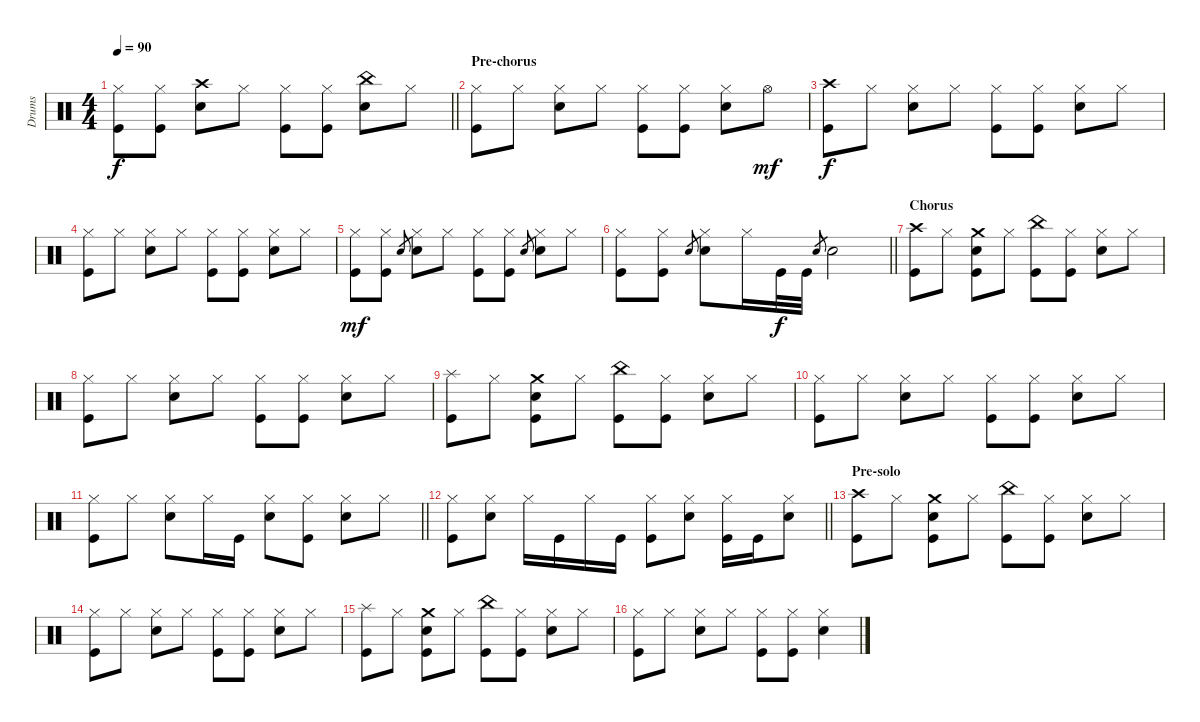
\track ("Drums" "Drums") {instrument percussion}
\staff {score}
\articulation defaults
\ts (4 4)
\tempo 90
\clef neutral
\barLineRight lightlight
\ks c
("Kick (hit)" "Hi-Hat (closed)").8{dy f} ("Kick (hit)" "Hi-Hat (closed)").8 ("Snare (hit) 2" "Crash high (hit)").8 "Hi-Hat (closed)".8 ("Kick (hit)" "Hi-Hat (closed)").8 ("Kick (hit)" "Hi-Hat (closed)").8 ("Snare (hit) 2" "China (hit)").8 "Hi-Hat (closed)".8 |
\section ("" "Pre-chorus")
("Kick (hit)" "Hi-Hat (closed)").8 "Hi-Hat (closed)".8 ("Snare (hit) 2" "Hi-Hat (closed)").8 "Hi-Hat (closed)".8 ("Kick (hit)" "Hi-Hat (closed)").8 ("Kick (hit)" "Hi-Hat (closed)").8 ("Snare (hit) 2" "Hi-Hat (closed)").8 "Hi-Hat (open)".8{dy mf} |
("Kick (hit)" "Crash high (hit)").8{dy f} "Hi-Hat (closed)".8 ("Snare (hit) 2" "Hi-Hat (closed)").8 "Hi-Hat (closed)".8 ("Kick (hit)" "Hi-Hat (closed)").8 ("Kick (hit)" "Hi-Hat (closed)").8 ("Snare (hit) 2" "Hi-Hat (closed)").8 "Hi-Hat (closed)".8 |
("Kick (hit)" "Hi-Hat (closed)").8 "Hi-Hat (closed)".8 ("Snare (hit) 2" "Hi-Hat (closed)").8 "Hi-Hat (closed)".8 ("Kick (hit)" "Hi-Hat (closed)").8 ("Kick (hit)" "Hi-Hat (closed)").8 ("Snare (hit) 2" "Hi-Hat (closed)").8 "Hi-Hat (closed)".8 |
("Kick (hit)" "Hi-Hat (closed)").8{dy mf} ("Kick (hit)" "Hi-Hat (closed)").8 "Snare (hit) 2".8{gr} ("Snare (hit) 2" "Hi-Hat (closed)").8 "Hi-Hat (closed)".8 ("Kick (hit)" "Hi-Hat (closed)").8 ("Kick (hit)" "Hi-Hat (closed)").8 "Snare (hit) 2".8{gr} ("Snare (hit) 2" "Hi-Hat (closed)").8 "Hi-Hat (closed)".8 |
\barLineRight lightlight
("Kick (hit)" "Hi-Hat (closed)").8 ("Kick (hit)" "Hi-Hat (closed)").8 "Snare (hit) 2".8{gr} ("Snare (hit) 2" "Hi-Hat (closed)").8 "Hi-Hat (closed)".16 "Kick (hit)".32{dy f} "Kick (hit)".32 "Snare (hit) 2".8{gr} "Snare (hit) 2".2 |
\section ("" "Chorus")
("Crash high (hit)" "Kick (hit)").8 "Hi-Hat (closed)".8 ("Kick (hit)" "Snare (hit) 2" "Crash medium (hit)").8 "Hi-Hat (closed)".8 ("Kick (hit)" "China (hit)").8 ("Kick (hit)" "Hi-Hat (closed)").8 ("Snare (hit) 2" "Hi-Hat (closed)").8 "Hi-Hat (closed)".8 |
("Kick (hit)" "Hi-Hat (closed)").8 "Hi-Hat (closed)".8 ("Snare (hit) 2" "Hi-Hat (closed)").8 "Hi-Hat (closed)".8 ("Kick (hit)" "Hi-Hat (closed)").8 ("Kick (hit)" "Hi-Hat (closed)").8 ("Snare (hit) 2" "Hi-Hat (closed)").8 "Hi-Hat (closed)".8 |
("Splash (hit)" "Kick (hit)").8 "Hi-Hat (closed)".8 ("Kick (hit)" "Snare (hit) 2" "Crash medium (hit)").8 "Hi-Hat (closed)".8 ("Kick (hit)" "China (hit)").8 ("Kick (hit)" "Hi-Hat (closed)").8 ("Snare (hit) 2" "Hi-Hat (closed)").8 "Hi-Hat (closed)".8 |
("Kick (hit)" "Hi-Hat (closed)").8 "Hi-Hat (closed)".8 ("Snare (hit) 2" "Hi-Hat (closed)").8 "Hi-Hat (closed)".8 ("Kick (hit)" "Hi-Hat (closed)").8 ("Kick (hit)" "Hi-Hat (closed)").8 ("Snare (hit) 2" "Hi-Hat (closed)").8 "Hi-Hat (closed)".8 |
\barLineRight lightlight
("Kick (hit)" "Hi-Hat (closed)").8 "Hi-Hat (closed)".8 ("Snare (hit) 2" "Hi-Hat (closed)").8 "Hi-Hat (closed)".16 "Kick (hit)".16 ("Snare (hit) 2" "Hi-Hat (closed)").8 ("Kick (hit)" "Hi-Hat (closed)").8 ("Snare (hit) 2" "Hi-Hat (closed)").8 "Hi-Hat (closed)".8 |
\barLineRight lightlight
("Kick (hit)" "Hi-Hat (closed)").8 ("Snare (hit) 2" "Hi-Hat (closed)").8 "Hi-Hat (closed)".16 "Kick (hit)".16 "Hi-Hat (closed)".16 "Kick (hit)".16 ("Hi-Hat (closed)" "Kick (hit)").8 ("Snare (hit) 2" "Hi-Hat (closed)").8 ("Kick (hit)" "Hi-Hat (closed)").16 "Kick (hit)".16 ("Snare (hit) 2" "Hi-Hat (closed)").8 |
\section ("" "Pre-solo")
("Crash high (hit)" "Kick (hit)").8 "Hi-Hat (closed)".8 ("Kick (hit)" "Snare (hit) 2" "Crash medium (hit)").8 "Hi-Hat (closed)".8 ("Kick (hit)" "China (hit)").8 ("Kick (hit)" "Hi-Hat (closed)").8 ("Snare (hit) 2" "Hi-Hat (closed)").8 "Hi-Hat (closed)".8 |
("Kick (hit)" "Hi-Hat (closed)").8 "Hi-Hat (closed)".8 ("Snare (hit) 2" "Hi-Hat (closed)").8 "Hi-Hat (closed)".8 ("Kick (hit)" "Hi-Hat (closed)").8 ("Kick (hit)" "Hi-Hat (closed)").8 ("Snare (hit) 2" "Hi-Hat (closed)").8 "Hi-Hat (closed)".8 |
("Splash (hit)" "Kick (hit)").8 "Hi-Hat (closed)".8 ("Kick (hit)" "Snare (hit) 2" "Crash medium (hit)").8 "Hi-Hat (closed)".8 ("Kick (hit)" "China (hit)").8 ("Kick (hit)" "Hi-Hat (closed)").8 ("Snare (hit) 2" "Hi-Hat (closed)").8 "Hi-Hat (closed)".8 |
("Kick (hit)" "Hi-Hat (closed)").8 "Hi-Hat (closed)".8 ("Snare (hit) 2" "Hi-Hat (closed)").8 "Hi-Hat (closed)".8 ("Kick (hit)" "Hi-Hat (closed)").8 ("Kick (hit)" "Hi-Hat (closed)").8 ("Snare (hit) 2" "Hi-Hat (closed)").4
